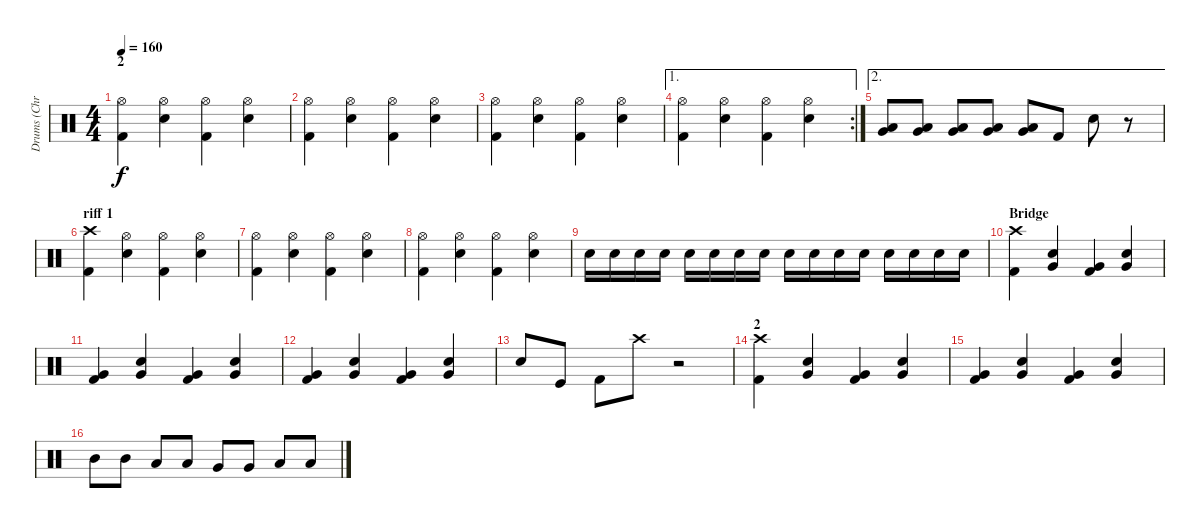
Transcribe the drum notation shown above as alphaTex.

\track ("Drums (Chris Efthimiadis)" "Drums (Chr") {instrument percussion}
\staff {score}
\articulation defaults
\ts (4 4)
\section ("" "2")
\tempo 160
\clef neutral
\ks c
("Hi-Hat (open)" "Kick (hit) 2").4{dy f} ("Hi-Hat (open)" "Snare (hit) 2").4 ("Hi-Hat (open)" "Kick (hit) 2").4 ("Hi-Hat (open)" "Snare (hit) 2").4 |
("Hi-Hat (open)" "Kick (hit) 2").4 ("Hi-Hat (open)" "Snare (hit) 2").4 ("Hi-Hat (open)" "Kick (hit) 2").4 ("Hi-Hat (open)" "Snare (hit) 2").4 |
("Hi-Hat (open)" "Kick (hit) 2").4 ("Hi-Hat (open)" "Snare (hit) 2").4 ("Hi-Hat (open)" "Kick (hit) 2").4 ("Hi-Hat (open)" "Snare (hit) 2").4 |
\ae 1
\rc 2
("Hi-Hat (open)" "Kick (hit) 2").4 ("Hi-Hat (open)" "Snare (hit) 2").4 ("Hi-Hat (open)" "Kick (hit) 2").4 ("Hi-Hat (open)" "Snare (hit) 2").4 |
\ae 2
("Very Low Tom (hit)" "Low Tom (hit)").8 ("Very Low Tom (hit)" "Low Tom (hit)").8 ("Very Low Tom (hit)" "Low Tom (hit)").8 ("Very Low Tom (hit)" "Low Tom (hit)").8 ("Very Low Tom (hit)" "Low Tom (hit)").8 "Kick (hit) 2".8 "Snare (hit) 2".8 r.8 |
\section ("" "riff 1")
("Crash high (hit)" "Kick (hit) 2").4 ("Hi-Hat (open)" "Snare (hit) 2").4 ("Hi-Hat (open)" "Kick (hit) 2").4 ("Hi-Hat (open)" "Snare (hit) 2").4 |
("Hi-Hat (open)" "Kick (hit) 2").4 ("Hi-Hat (open)" "Snare (hit) 2").4 ("Hi-Hat (open)" "Kick (hit) 2").4 ("Hi-Hat (open)" "Snare (hit) 2").4 |
("Hi-Hat (open)" "Kick (hit) 2").4 ("Hi-Hat (open)" "Snare (hit) 2").4 ("Hi-Hat (open)" "Kick (hit) 2").4 ("Hi-Hat (open)" "Snare (hit) 2").4 |
"Snare (hit) 2".16 "Snare (hit) 2".16 "Snare (hit) 2".16 "Snare (hit) 2".16 "Snare (hit) 2".16 "Snare (hit) 2".16 "Snare (hit) 2".16 "Snare (hit) 2".16 "Snare (hit) 2".16 "Snare (hit) 2".16 "Snare (hit) 2".16 "Snare (hit) 2".16 "Snare (hit) 2".16 "Snare (hit) 2".16 "Snare (hit) 2".16 "Snare (hit) 2".16 |
\section ("" "Bridge")
("Crash high (hit)" "Kick (hit) 2").4 ("Very Low Tom (hit)" "Snare (hit) 2").4 ("Very Low Tom (hit)" "Kick (hit) 2").4 ("Very Low Tom (hit)" "Snare (hit) 2").4 |
("Very Low Tom (hit)" "Kick (hit) 2").4 ("Very Low Tom (hit)" "Snare (hit) 2").4 ("Very Low Tom (hit)" "Kick (hit) 2").4 ("Very Low Tom (hit)" "Snare (hit) 2").4 |
("Very Low Tom (hit)" "Kick (hit) 2").4 ("Very Low Tom (hit)" "Snare (hit) 2").4 ("Very Low Tom (hit)" "Kick (hit) 2").4 ("Very Low Tom (hit)" "Snare (hit) 2").4 |
"Snare (hit) 2".8 "Kick (hit)".8 "Kick (hit) 2".8 "Crash high (hit)".8 r.2 |
\section ("" "2")
("Crash high (hit)" "Kick (hit) 2").4 ("Very Low Tom (hit)" "Snare (hit) 2").4 ("Very Low Tom (hit)" "Kick (hit) 2").4 ("Very Low Tom (hit)" "Snare (hit) 2").4 |
("Very Low Tom (hit)" "Kick (hit) 2").4 ("Very Low Tom (hit)" "Snare (hit) 2").4 ("Very Low Tom (hit)" "Kick (hit) 2").4 ("Very Low Tom (hit)" "Snare (hit) 2").4 |
"Mid Tom (hit)".8 "Mid Tom (hit)".8 "Low Tom (hit)".8 "Low Tom (hit)".8 "Very Low Tom (hit)".8 "Very Low Tom (hit)".8 "Low Floor Tom (hit)".8 "Low Floor Tom (hit)".8
